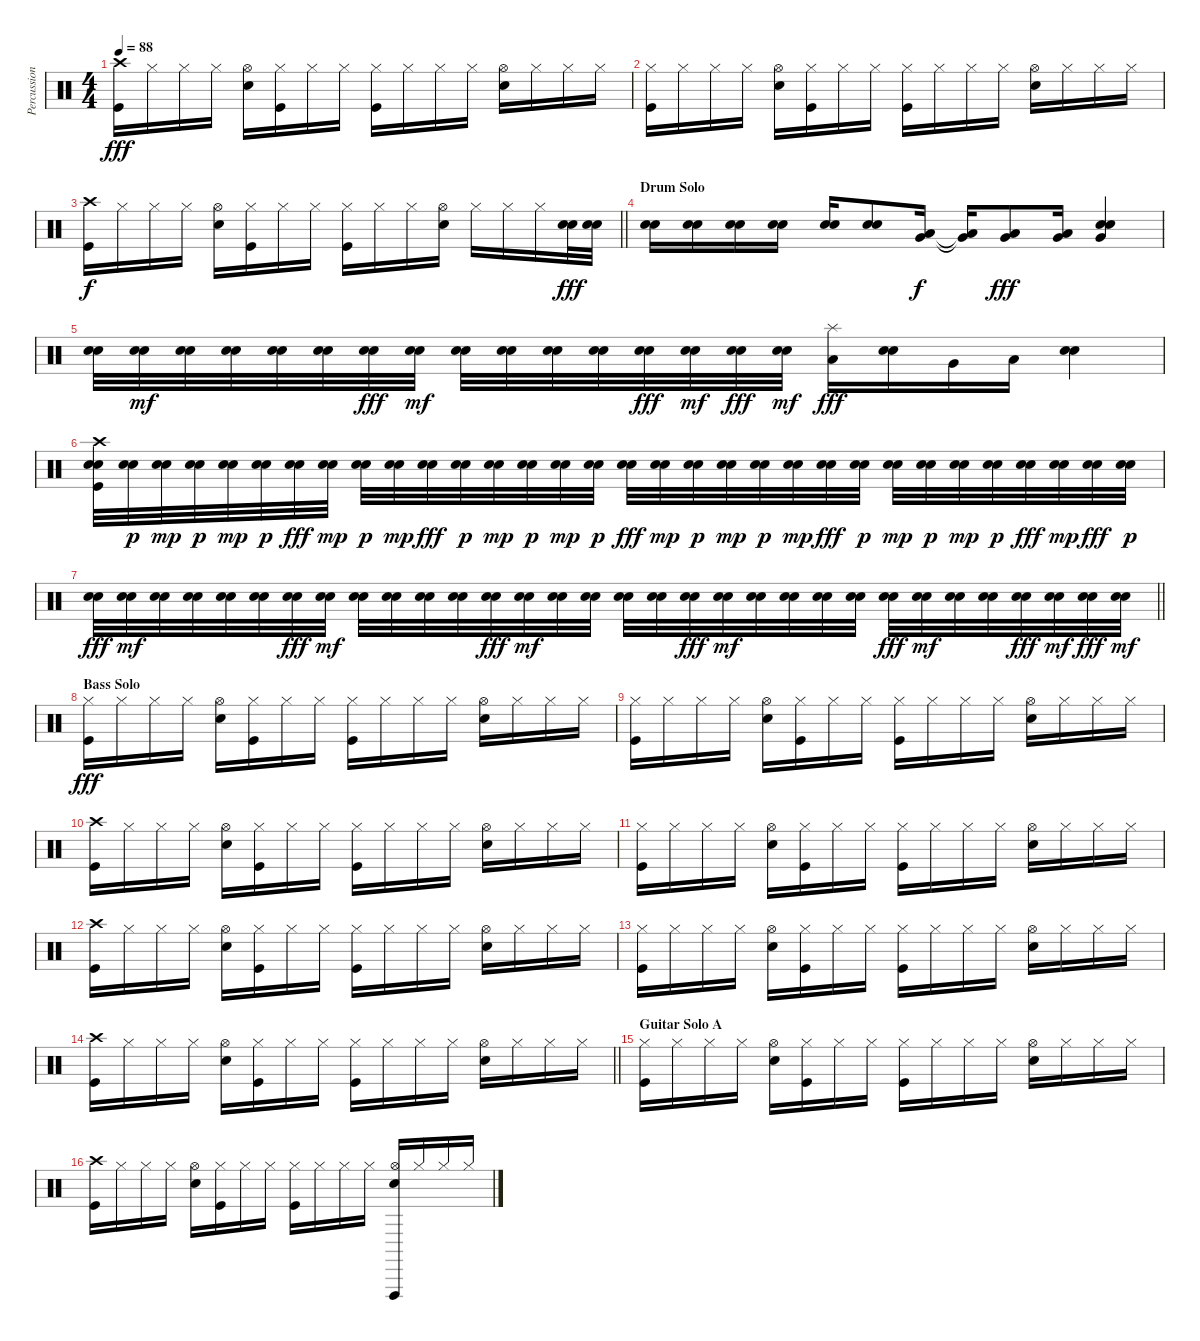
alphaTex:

\track ("Percussion" "Percussion") {instrument percussion}
\staff {score}
\articulation defaults
\ts (4 4)
\tempo 88
\clef neutral
\ks c
("Crash high (hit)" "Kick (hit)").16{dy fff} "Hi-Hat (closed)".16 "Hi-Hat (closed)".16 "Hi-Hat (closed)".16 ("Hi-Hat (open)" "Snare (hit) 2").16 ("Hi-Hat (closed)" "Kick (hit)").16 "Hi-Hat (closed)".16 "Hi-Hat (closed)".16 ("Hi-Hat (closed)" "Kick (hit)").16 "Hi-Hat (closed)".16 "Hi-Hat (closed)".16 "Hi-Hat (closed)".16 ("Hi-Hat (open)" "Snare (hit) 2").16 "Hi-Hat (closed)".16 "Hi-Hat (closed)".16 "Hi-Hat (closed)".16 |
("Hi-Hat (closed)" "Kick (hit)").16 "Hi-Hat (closed)".16 "Hi-Hat (closed)".16 "Hi-Hat (closed)".16 ("Hi-Hat (open)" "Snare (hit) 2").16 ("Hi-Hat (closed)" "Kick (hit)").16 "Hi-Hat (closed)".16 "Hi-Hat (closed)".16 ("Hi-Hat (closed)" "Kick (hit)").16 "Hi-Hat (closed)".16 "Hi-Hat (closed)".16 "Hi-Hat (closed)".16 ("Hi-Hat (open)" "Snare (hit) 2").16 "Hi-Hat (closed)".16 "Hi-Hat (closed)".16 "Hi-Hat (closed)".16 |
\barLineRight lightlight
("Crash high (hit)" "Kick (hit)").16{dy f} "Hi-Hat (closed)".16 "Hi-Hat (closed)".16 "Hi-Hat (closed)".16 ("Hi-Hat (open)" "Snare (hit) 2").16 ("Hi-Hat (closed)" "Kick (hit)").16 "Hi-Hat (closed)".16 "Hi-Hat (closed)".16 ("Hi-Hat (closed)" "Kick (hit)").16 "Hi-Hat (closed)".16 "Hi-Hat (closed)".16 ("Hi-Hat (open)" "Snare (hit) 2").16 "Hi-Hat (closed)".16 "Hi-Hat (closed)".16 "Hi-Hat (closed)".16 ("Electric Snare (hit)" "Snare (hit) 2").32{dy fff} ("Electric Snare (hit)" "Snare (hit) 2").32 |
\section ("" "Drum Solo")
("Electric Snare (hit)" "Snare (hit) 2").16 ("Electric Snare (hit)" "Snare (hit) 2").16 ("Electric Snare (hit)" "Snare (hit) 2").16 ("Electric Snare (hit)" "Snare (hit) 2").16 ("Electric Snare (hit)" "Snare (hit) 2").16 ("Electric Snare (hit)" "Snare (hit) 2").8 ("Low Tom (hit)" "Very Low Tom (hit)").16{dy f} ("Low Tom (hit)"{t} "Very Low Tom (hit)"{t}).16 ("Low Tom (hit)" "Very Low Tom (hit)").8{dy fff} ("Very Low Tom (hit)" "Low Floor Tom (hit)").16 ("Very Low Tom (hit)" "Electric Snare (hit)" "Snare (hit) 2").4 |
("Electric Snare (hit)" "Snare (hit) 2").32 ("Electric Snare (hit)" "Snare (hit) 2").32{dy mf} ("Electric Snare (hit)" "Snare (hit) 2").32 ("Electric Snare (hit)" "Snare (hit) 2").32 ("Electric Snare (hit)" "Snare (hit) 2").32 ("Electric Snare (hit)" "Snare (hit) 2").32 ("Electric Snare (hit)" "Snare (hit) 2").32{dy fff} ("Electric Snare (hit)" "Snare (hit) 2").32{dy mf} ("Electric Snare (hit)" "Snare (hit) 2").32 ("Electric Snare (hit)" "Snare (hit) 2").32 ("Electric Snare (hit)" "Snare (hit) 2").32 ("Electric Snare (hit)" "Snare (hit) 2").32 ("Electric Snare (hit)" "Snare (hit) 2").32{dy fff} ("Electric Snare (hit)" "Snare (hit) 2").32{dy mf} ("Electric Snare (hit)" "Snare (hit) 2").32{dy fff} ("Electric Snare (hit)" "Snare (hit) 2").32{dy mf} ("Splash (hit)" "Low Tom (hit)").16{dy fff} ("Electric Snare (hit)" "Snare (hit) 2").16 "Very Low Tom (hit)".16 "Low Floor Tom (hit)".16 ("Electric Snare (hit)" "Snare (hit) 2").4 |
("Crash high (hit)" "Electric Snare (hit)" "Snare (hit) 2" "Kick (hit)").32 ("Electric Snare (hit)" "Snare (hit) 2").32{dy p} ("Electric Snare (hit)" "Snare (hit) 2").32{dy mp} ("Electric Snare (hit)" "Snare (hit) 2").32{dy p} ("Electric Snare (hit)" "Snare (hit) 2").32{dy mp} ("Electric Snare (hit)" "Snare (hit) 2").32{dy p} ("Electric Snare (hit)" "Snare (hit) 2").32{dy fff} ("Electric Snare (hit)" "Snare (hit) 2").32{dy mp} ("Electric Snare (hit)" "Snare (hit) 2").32{dy p} ("Electric Snare (hit)" "Snare (hit) 2").32{dy mp} ("Electric Snare (hit)" "Snare (hit) 2").32{dy fff} ("Electric Snare (hit)" "Snare (hit) 2").32{dy p} ("Electric Snare (hit)" "Snare (hit) 2").32{dy mp} ("Electric Snare (hit)" "Snare (hit) 2").32{dy p} ("Electric Snare (hit)" "Snare (hit) 2").32{dy mp} ("Electric Snare (hit)" "Snare (hit) 2").32{dy p} ("Electric Snare (hit)" "Snare (hit) 2").32{dy fff} ("Electric Snare (hit)" "Snare (hit) 2").32{dy mp} ("Electric Snare (hit)" "Snare (hit) 2").32{dy p} ("Electric Snare (hit)" "Snare (hit) 2").32{dy mp} ("Electric Snare (hit)" "Snare (hit) 2").32{dy p} ("Electric Snare (hit)" "Snare (hit) 2").32{dy mp} ("Electric Snare (hit)" "Snare (hit) 2").32{dy fff} ("Electric Snare (hit)" "Snare (hit) 2").32{dy p} ("Electric Snare (hit)" "Snare (hit) 2").32{dy mp} ("Electric Snare (hit)" "Snare (hit) 2").32{dy p} ("Electric Snare (hit)" "Snare (hit) 2").32{dy mp} ("Electric Snare (hit)" "Snare (hit) 2").32{dy p} ("Electric Snare (hit)" "Snare (hit) 2").32{dy fff} ("Electric Snare (hit)" "Snare (hit) 2").32{dy mp} ("Electric Snare (hit)" "Snare (hit) 2").32{dy fff} ("Electric Snare (hit)" "Snare (hit) 2").32{dy p} |
\barLineRight lightlight
("Electric Snare (hit)" "Snare (hit) 2").32{dy fff} ("Electric Snare (hit)" "Snare (hit) 2").32{dy mf} ("Electric Snare (hit)" "Snare (hit) 2").32 ("Electric Snare (hit)" "Snare (hit) 2").32 ("Electric Snare (hit)" "Snare (hit) 2").32 ("Electric Snare (hit)" "Snare (hit) 2").32 ("Electric Snare (hit)" "Snare (hit) 2").32{dy fff} ("Electric Snare (hit)" "Snare (hit) 2").32{dy mf} ("Electric Snare (hit)" "Snare (hit) 2").32 ("Electric Snare (hit)" "Snare (hit) 2").32 ("Electric Snare (hit)" "Snare (hit) 2").32 ("Electric Snare (hit)" "Snare (hit) 2").32 ("Electric Snare (hit)" "Snare (hit) 2").32{dy fff} ("Electric Snare (hit)" "Snare (hit) 2").32{dy mf} ("Electric Snare (hit)" "Snare (hit) 2").32 ("Electric Snare (hit)" "Snare (hit) 2").32 ("Electric Snare (hit)" "Snare (hit) 2").32 ("Electric Snare (hit)" "Snare (hit) 2").32 ("Electric Snare (hit)" "Snare (hit) 2").32{dy fff} ("Electric Snare (hit)" "Snare (hit) 2").32{dy mf} ("Electric Snare (hit)" "Snare (hit) 2").32 ("Electric Snare (hit)" "Snare (hit) 2").32 ("Electric Snare (hit)" "Snare (hit) 2").32 ("Electric Snare (hit)" "Snare (hit) 2").32 ("Electric Snare (hit)" "Snare (hit) 2").32{dy fff} ("Electric Snare (hit)" "Snare (hit) 2").32{dy mf} ("Electric Snare (hit)" "Snare (hit) 2").32 ("Electric Snare (hit)" "Snare (hit) 2").32 ("Electric Snare (hit)" "Snare (hit) 2").32{dy fff} ("Electric Snare (hit)" "Snare (hit) 2").32{dy mf} ("Electric Snare (hit)" "Snare (hit) 2").32{dy fff} ("Electric Snare (hit)" "Snare (hit) 2").32{dy mf} |
\section ("" "Bass Solo")
("Hi-Hat (closed)" "Kick (hit)").16{dy fff} "Hi-Hat (closed)".16 "Hi-Hat (closed)".16 "Hi-Hat (closed)".16 ("Hi-Hat (open)" "Snare (hit) 2").16 ("Hi-Hat (closed)" "Kick (hit)").16 "Hi-Hat (closed)".16 "Hi-Hat (closed)".16 ("Hi-Hat (closed)" "Kick (hit)").16 "Hi-Hat (closed)".16 "Hi-Hat (closed)".16 "Hi-Hat (closed)".16 ("Hi-Hat (open)" "Snare (hit) 2").16 "Hi-Hat (closed)".16 "Hi-Hat (closed)".16 "Hi-Hat (closed)".16 |
("Hi-Hat (closed)" "Kick (hit)").16 "Hi-Hat (closed)".16 "Hi-Hat (closed)".16 "Hi-Hat (closed)".16 ("Hi-Hat (open)" "Snare (hit) 2").16 ("Hi-Hat (closed)" "Kick (hit)").16 "Hi-Hat (closed)".16 "Hi-Hat (closed)".16 ("Hi-Hat (closed)" "Kick (hit)").16 "Hi-Hat (closed)".16 "Hi-Hat (closed)".16 "Hi-Hat (closed)".16 ("Hi-Hat (open)" "Snare (hit) 2").16 "Hi-Hat (closed)".16 "Hi-Hat (closed)".16 "Hi-Hat (closed)".16 |
("Crash high (hit)" "Kick (hit)").16 "Hi-Hat (closed)".16 "Hi-Hat (closed)".16 "Hi-Hat (closed)".16 ("Hi-Hat (open)" "Snare (hit) 2").16 ("Hi-Hat (closed)" "Kick (hit)").16 "Hi-Hat (closed)".16 "Hi-Hat (closed)".16 ("Hi-Hat (closed)" "Kick (hit)").16 "Hi-Hat (closed)".16 "Hi-Hat (closed)".16 "Hi-Hat (closed)".16 ("Hi-Hat (open)" "Snare (hit) 2").16 "Hi-Hat (closed)".16 "Hi-Hat (closed)".16 "Hi-Hat (closed)".16 |
("Hi-Hat (closed)" "Kick (hit)").16 "Hi-Hat (closed)".16 "Hi-Hat (closed)".16 "Hi-Hat (closed)".16 ("Hi-Hat (open)" "Snare (hit) 2").16 ("Hi-Hat (closed)" "Kick (hit)").16 "Hi-Hat (closed)".16 "Hi-Hat (closed)".16 ("Hi-Hat (closed)" "Kick (hit)").16 "Hi-Hat (closed)".16 "Hi-Hat (closed)".16 "Hi-Hat (closed)".16 ("Hi-Hat (open)" "Snare (hit) 2").16 "Hi-Hat (closed)".16 "Hi-Hat (closed)".16 "Hi-Hat (closed)".16 |
("Crash high (hit)" "Kick (hit)").16 "Hi-Hat (closed)".16 "Hi-Hat (closed)".16 "Hi-Hat (closed)".16 ("Hi-Hat (open)" "Snare (hit) 2").16 ("Hi-Hat (closed)" "Kick (hit)").16 "Hi-Hat (closed)".16 "Hi-Hat (closed)".16 ("Hi-Hat (closed)" "Kick (hit)").16 "Hi-Hat (closed)".16 "Hi-Hat (closed)".16 "Hi-Hat (closed)".16 ("Hi-Hat (open)" "Snare (hit) 2").16 "Hi-Hat (closed)".16 "Hi-Hat (closed)".16 "Hi-Hat (closed)".16 |
("Hi-Hat (closed)" "Kick (hit)").16 "Hi-Hat (closed)".16 "Hi-Hat (closed)".16 "Hi-Hat (closed)".16 ("Hi-Hat (open)" "Snare (hit) 2").16 ("Hi-Hat (closed)" "Kick (hit)").16 "Hi-Hat (closed)".16 "Hi-Hat (closed)".16 ("Hi-Hat (closed)" "Kick (hit)").16 "Hi-Hat (closed)".16 "Hi-Hat (closed)".16 "Hi-Hat (closed)".16 ("Hi-Hat (open)" "Snare (hit) 2").16 "Hi-Hat (closed)".16 "Hi-Hat (closed)".16 "Hi-Hat (closed)".16 |
\barLineRight lightlight
("Crash high (hit)" "Kick (hit)").16 "Hi-Hat (closed)".16 "Hi-Hat (closed)".16 "Hi-Hat (closed)".16 ("Hi-Hat (open)" "Snare (hit) 2").16 ("Hi-Hat (closed)" "Kick (hit)").16 "Hi-Hat (closed)".16 "Hi-Hat (closed)".16 ("Hi-Hat (closed)" "Kick (hit)").16 "Hi-Hat (closed)".16 "Hi-Hat (closed)".16 "Hi-Hat (closed)".16 ("Hi-Hat (open)" "Snare (hit) 2").16 "Hi-Hat (closed)".16 "Hi-Hat (closed)".16 "Hi-Hat (closed)".16 |
\section ("" "Guitar Solo A")
("Hi-Hat (closed)" "Kick (hit)").16 "Hi-Hat (closed)".16 "Hi-Hat (closed)".16 "Hi-Hat (closed)".16 ("Hi-Hat (open)" "Snare (hit) 2").16 ("Hi-Hat (closed)" "Kick (hit)").16 "Hi-Hat (closed)".16 "Hi-Hat (closed)".16 ("Hi-Hat (closed)" "Kick (hit)").16 "Hi-Hat (closed)".16 "Hi-Hat (closed)".16 "Hi-Hat (closed)".16 ("Hi-Hat (open)" "Snare (hit) 2").16 "Hi-Hat (closed)".16 "Hi-Hat (closed)".16 "Hi-Hat (closed)".16 |
("Crash high (hit)" "Kick (hit)").16 "Hi-Hat (closed)".16 "Hi-Hat (closed)".16 "Hi-Hat (closed)".16 ("Hi-Hat (open)" "Snare (hit) 2").16 ("Hi-Hat (closed)" "Kick (hit)").16 "Hi-Hat (closed)".16 "Hi-Hat (closed)".16 ("Hi-Hat (closed)" "Kick (hit)").16 "Hi-Hat (closed)".16 "Hi-Hat (closed)".16 "Hi-Hat (closed)".16 ("Hi-Hat (open)" "Vibraslap (hit)" "Snare (hit) 2").16 "Hi-Hat (closed)".16 "Hi-Hat (closed)".16 "Hi-Hat (closed)".16
